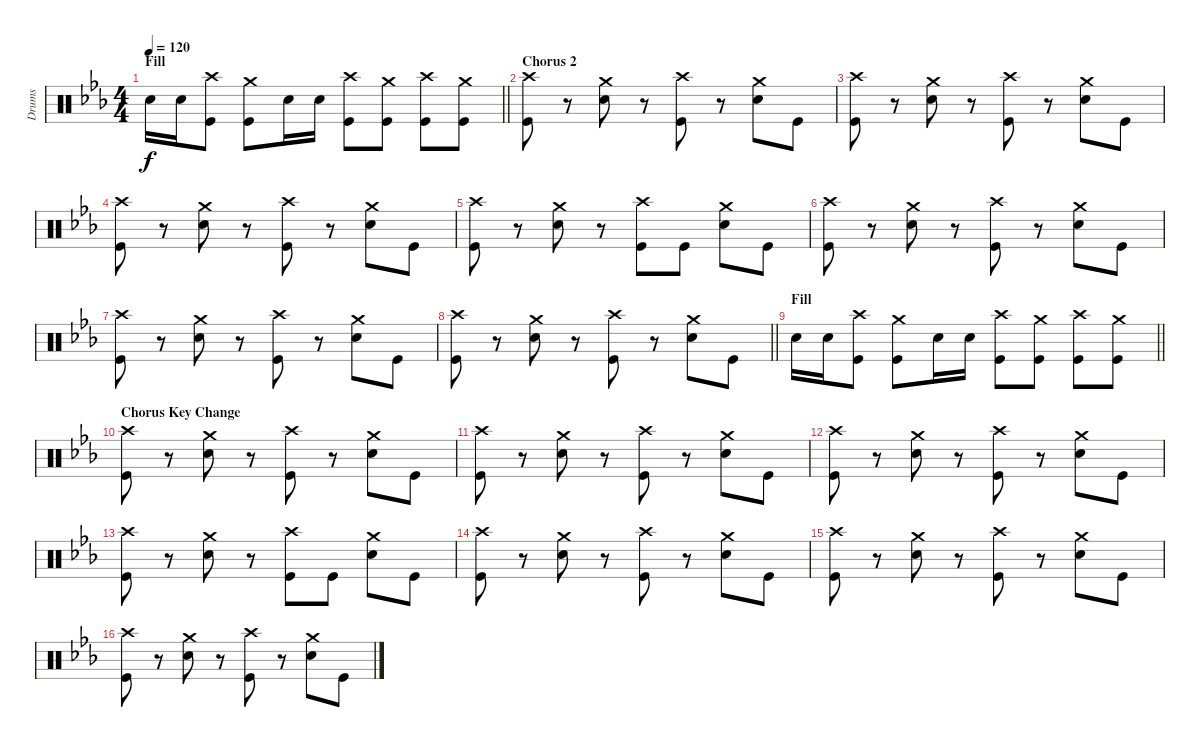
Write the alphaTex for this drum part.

\track ("Drums" "Drums") {instrument percussion}
\staff {score}
\articulation defaults
\ts (4 4)
\section ("" "Fill")
\tempo 120
\clef neutral
\barLineRight lightlight
\ks cminor "Snare (hit) 2".16{dy f} "Snare (hit) 2".16
("Kick (hit)" "Crash high (hit)").8 ("Kick (hit)" "Crash medium (hit)").8 "Snare (hit) 2".16 "Snare (hit) 2".16 ("Kick (hit)" "Crash high (hit)").8 ("Kick (hit)" "Crash medium (hit)").8 ("Kick (hit)" "Crash high (hit)").8 ("Kick (hit)" "Crash medium (hit)").8 |
\section ("" "Chorus 2")
("Crash high (hit)" "Kick (hit)").8 r.8 ("Crash medium (hit)" "Snare (hit) 2").8 r.8 ("Crash high (hit)" "Kick (hit)").8 r.8 ("Crash medium (hit)" "Snare (hit) 2").8 "Kick (hit)".8 |
("Crash high (hit)" "Kick (hit)").8 r.8 ("Crash medium (hit)" "Snare (hit) 2").8 r.8 ("Crash high (hit)" "Kick (hit)").8 r.8 ("Crash medium (hit)" "Snare (hit) 2").8 "Kick (hit)".8 |
("Crash high (hit)" "Kick (hit)").8 r.8 ("Crash medium (hit)" "Snare (hit) 2").8 r.8 ("Crash high (hit)" "Kick (hit)").8 r.8 ("Crash medium (hit)" "Snare (hit) 2").8 "Kick (hit)".8 |
("Crash high (hit)" "Kick (hit)").8 r.8 ("Crash medium (hit)" "Snare (hit) 2").8 r.8 ("Crash high (hit)" "Kick (hit)").8 "Kick (hit)".8 ("Crash medium (hit)" "Snare (hit) 2").8 "Kick (hit)".8 |
("Crash high (hit)" "Kick (hit)").8 r.8 ("Crash medium (hit)" "Snare (hit) 2").8 r.8 ("Crash high (hit)" "Kick (hit)").8 r.8 ("Crash medium (hit)" "Snare (hit) 2").8 "Kick (hit)".8 |
("Crash high (hit)" "Kick (hit)").8 r.8 ("Crash medium (hit)" "Snare (hit) 2").8 r.8 ("Crash high (hit)" "Kick (hit)").8 r.8 ("Crash medium (hit)" "Snare (hit) 2").8 "Kick (hit)".8 |
\barLineRight lightlight
("Crash high (hit)" "Kick (hit)").8 r.8 ("Crash medium (hit)" "Snare (hit) 2").8 r.8 ("Crash high (hit)" "Kick (hit)").8 r.8 ("Crash medium (hit)" "Snare (hit) 2").8 "Kick (hit)".8 |
\section ("" "Fill")
\barLineRight lightlight "Snare (hit) 2".16 "Snare (hit) 2".16
("Kick (hit)" "Crash high (hit)").8 ("Kick (hit)" "Crash medium (hit)").8 "Snare (hit) 2".16 "Snare (hit) 2".16 ("Kick (hit)" "Crash high (hit)").8 ("Kick (hit)" "Crash medium (hit)").8 ("Kick (hit)" "Crash high (hit)").8 ("Kick (hit)" "Crash medium (hit)").8 |
\section ("" "Chorus Key Change")
("Crash high (hit)" "Kick (hit)").8 r.8 ("Crash medium (hit)" "Snare (hit) 2").8 r.8 ("Crash high (hit)" "Kick (hit)").8 r.8 ("Crash medium (hit)" "Snare (hit) 2").8 "Kick (hit)".8 |
("Crash high (hit)" "Kick (hit)").8 r.8 ("Crash medium (hit)" "Snare (hit) 2").8 r.8 ("Crash high (hit)" "Kick (hit)").8 r.8 ("Crash medium (hit)" "Snare (hit) 2").8 "Kick (hit)".8 |
("Crash high (hit)" "Kick (hit)").8 r.8 ("Crash medium (hit)" "Snare (hit) 2").8 r.8 ("Crash high (hit)" "Kick (hit)").8 r.8 ("Crash medium (hit)" "Snare (hit) 2").8 "Kick (hit)".8 |
("Crash high (hit)" "Kick (hit)").8 r.8 ("Crash medium (hit)" "Snare (hit) 2").8 r.8 ("Crash high (hit)" "Kick (hit)").8 "Kick (hit)".8 ("Crash medium (hit)" "Snare (hit) 2").8 "Kick (hit)".8 |
("Crash high (hit)" "Kick (hit)").8 r.8 ("Crash medium (hit)" "Snare (hit) 2").8 r.8 ("Crash high (hit)" "Kick (hit)").8 r.8 ("Crash medium (hit)" "Snare (hit) 2").8 "Kick (hit)".8 |
("Crash high (hit)" "Kick (hit)").8 r.8 ("Crash medium (hit)" "Snare (hit) 2").8 r.8 ("Crash high (hit)" "Kick (hit)").8 r.8 ("Crash medium (hit)" "Snare (hit) 2").8 "Kick (hit)".8 |
("Crash high (hit)" "Kick (hit)").8 r.8 ("Crash medium (hit)" "Snare (hit) 2").8 r.8 ("Crash high (hit)" "Kick (hit)").8 r.8 ("Crash medium (hit)" "Snare (hit) 2").8 "Kick (hit)".8
